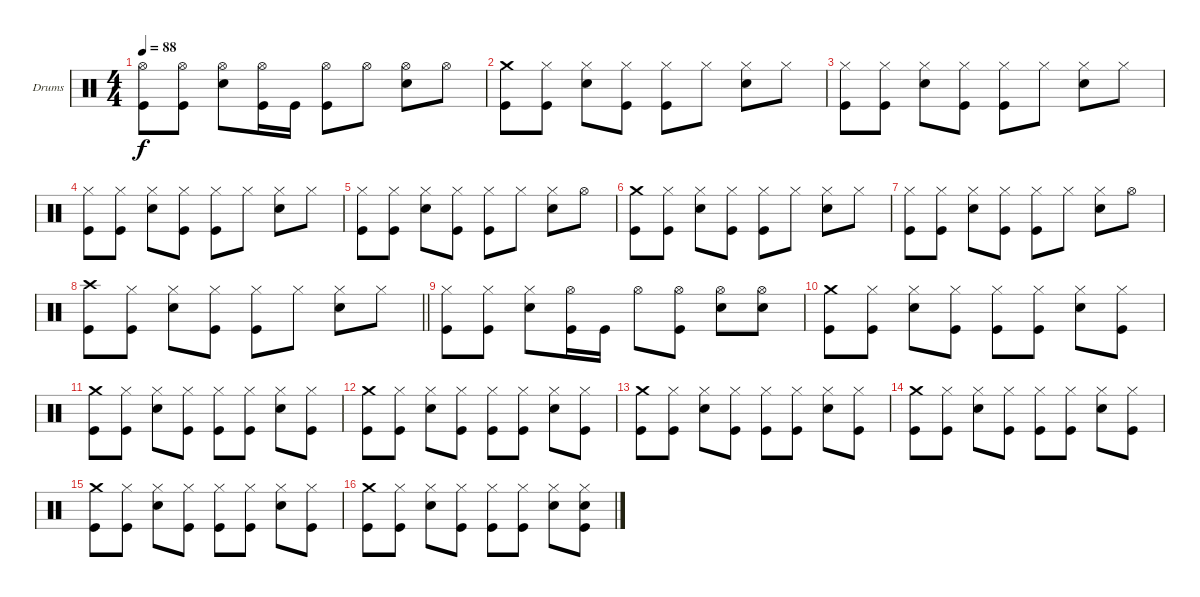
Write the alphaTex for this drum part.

\bracketExtendMode groupsimilarinstruments
\firstSystemTrackNameOrientation horizontal
\otherSystemsTrackNameOrientation horizontal
\track ("Drumkit" "Drums") {instrument percussion}
\staff {score}
\articulation defaults
\ts (4 4)
\tempo 88
\clef neutral
\ks c
("Kick (hit)" "Hi-Hat (open)").8{dy f} ("Kick (hit)" "Hi-Hat (open)").8 ("Snare (hit) 2" "Hi-Hat (open)").8 ("Kick (hit)" "Hi-Hat (open)").16 "Kick (hit)".16 ("Kick (hit)" "Hi-Hat (open)").8 "Hi-Hat (open)".8 ("Snare (hit) 2" "Hi-Hat (open)").8 "Hi-Hat (open)".8 |
("Kick (hit)" "Crash medium (hit)").8 ("Kick (hit)" "Hi-Hat (closed)").8 ("Snare (hit) 2" "Hi-Hat (closed)").8 ("Kick (hit)" "Hi-Hat (closed)").8 ("Kick (hit)" "Hi-Hat (closed)").8 "Hi-Hat (closed)".8 ("Snare (hit) 2" "Hi-Hat (closed)").8 "Hi-Hat (closed)".8 |
("Kick (hit)" "Hi-Hat (closed)").8 ("Kick (hit)" "Hi-Hat (closed)").8 ("Snare (hit) 2" "Hi-Hat (closed)").8 ("Kick (hit)" "Hi-Hat (closed)").8 ("Kick (hit)" "Hi-Hat (closed)").8 "Hi-Hat (closed)".8 ("Snare (hit) 2" "Hi-Hat (closed)").8 "Hi-Hat (closed)".8 |
("Kick (hit)" "Hi-Hat (closed)").8 ("Kick (hit)" "Hi-Hat (closed)").8 ("Snare (hit) 2" "Hi-Hat (closed)").8 ("Kick (hit)" "Hi-Hat (closed)").8 ("Kick (hit)" "Hi-Hat (closed)").8 "Hi-Hat (closed)".8 ("Snare (hit) 2" "Hi-Hat (closed)").8 "Hi-Hat (closed)".8 |
("Kick (hit)" "Hi-Hat (closed)").8 ("Kick (hit)" "Hi-Hat (closed)").8 ("Snare (hit) 2" "Hi-Hat (closed)").8 ("Kick (hit)" "Hi-Hat (closed)").8 ("Kick (hit)" "Hi-Hat (closed)").8 "Hi-Hat (closed)".8 ("Snare (hit) 2" "Hi-Hat (closed)").8 "Hi-Hat (open)".8 |
("Kick (hit)" "Crash medium (hit)").8 ("Kick (hit)" "Hi-Hat (closed)").8 ("Snare (hit) 2" "Hi-Hat (closed)").8 ("Kick (hit)" "Hi-Hat (closed)").8 ("Kick (hit)" "Hi-Hat (closed)").8 "Hi-Hat (closed)".8 ("Snare (hit) 2" "Hi-Hat (closed)").8 "Hi-Hat (closed)".8 |
("Kick (hit)" "Hi-Hat (closed)").8 ("Kick (hit)" "Hi-Hat (closed)").8 ("Snare (hit) 2" "Hi-Hat (closed)").8 ("Kick (hit)" "Hi-Hat (closed)").8 ("Kick (hit)" "Hi-Hat (closed)").8 "Hi-Hat (closed)".8 ("Snare (hit) 2" "Hi-Hat (closed)").8 "Hi-Hat (open)".8 |
\barLineRight lightlight
("Kick (hit)" "Crash high (hit)").8 ("Kick (hit)" "Hi-Hat (closed)").8 ("Snare (hit) 2" "Hi-Hat (closed)").8 ("Kick (hit)" "Hi-Hat (closed)").8 ("Kick (hit)" "Hi-Hat (closed)").8 "Hi-Hat (closed)".8 ("Snare (hit) 2" "Hi-Hat (closed)").8 "Hi-Hat (closed)".8 |
("Kick (hit)" "Hi-Hat (closed)").8 ("Kick (hit)" "Hi-Hat (closed)").8 ("Snare (hit) 2" "Hi-Hat (closed)").8 ("Kick (hit)" "Hi-Hat (open)").16 "Kick (hit)".16 "Hi-Hat (open)".8 ("Kick (hit)" "Hi-Hat (open)").8 ("Snare (hit) 2" "Hi-Hat (open)").8 ("Snare (hit) 2" "Hi-Hat (open)").8 |
("Kick (hit)" "Crash medium (hit)").8 ("Kick (hit)" "Hi-Hat (closed)").8 ("Snare (hit) 2" "Hi-Hat (closed)").8 ("Kick (hit)" "Hi-Hat (closed)").8 ("Kick (hit)" "Hi-Hat (closed)").8 ("Kick (hit)" "Hi-Hat (closed)").8 ("Snare (hit) 2" "Hi-Hat (closed)").8 ("Kick (hit)" "Hi-Hat (closed)").8 |
("Kick (hit)" "Crash medium (hit)").8 ("Kick (hit)" "Hi-Hat (closed)").8 ("Snare (hit) 2" "Hi-Hat (closed)").8 ("Kick (hit)" "Hi-Hat (closed)").8 ("Kick (hit)" "Hi-Hat (closed)").8 ("Kick (hit)" "Hi-Hat (closed)").8 ("Snare (hit) 2" "Hi-Hat (closed)").8 ("Kick (hit)" "Hi-Hat (closed)").8 |
("Kick (hit)" "Crash medium (hit)").8 ("Kick (hit)" "Hi-Hat (closed)").8 ("Snare (hit) 2" "Hi-Hat (closed)").8 ("Kick (hit)" "Hi-Hat (closed)").8 ("Kick (hit)" "Hi-Hat (closed)").8 ("Kick (hit)" "Hi-Hat (closed)").8 ("Snare (hit) 2" "Hi-Hat (closed)").8 ("Kick (hit)" "Hi-Hat (closed)").8 |
("Kick (hit)" "Crash medium (hit)").8 ("Kick (hit)" "Hi-Hat (closed)").8 ("Snare (hit) 2" "Hi-Hat (closed)").8 ("Kick (hit)" "Hi-Hat (closed)").8 ("Kick (hit)" "Hi-Hat (closed)").8 ("Kick (hit)" "Hi-Hat (closed)").8 ("Snare (hit) 2" "Hi-Hat (closed)").8 ("Kick (hit)" "Hi-Hat (closed)").8 |
("Kick (hit)" "Crash medium (hit)").8 ("Kick (hit)" "Hi-Hat (closed)").8 ("Snare (hit) 2" "Hi-Hat (closed)").8 ("Kick (hit)" "Hi-Hat (closed)").8 ("Kick (hit)" "Hi-Hat (closed)").8 ("Kick (hit)" "Hi-Hat (closed)").8 ("Snare (hit) 2" "Hi-Hat (closed)").8 ("Kick (hit)" "Hi-Hat (closed)").8 |
("Kick (hit)" "Crash medium (hit)").8 ("Kick (hit)" "Hi-Hat (closed)").8 ("Snare (hit) 2" "Hi-Hat (closed)").8 ("Kick (hit)" "Hi-Hat (closed)").8 ("Kick (hit)" "Hi-Hat (closed)").8 ("Kick (hit)" "Hi-Hat (closed)").8 ("Snare (hit) 2" "Hi-Hat (closed)").8 ("Kick (hit)" "Hi-Hat (closed)").8 |
("Kick (hit)" "Crash medium (hit)").8 ("Kick (hit)" "Hi-Hat (closed)").8 ("Snare (hit) 2" "Hi-Hat (closed)").8 ("Kick (hit)" "Hi-Hat (closed)").8 ("Kick (hit)" "Hi-Hat (closed)").8 ("Kick (hit)" "Hi-Hat (closed)").8 ("Snare (hit) 2" "Hi-Hat (closed)").8 ("Snare (hit) 2" "Kick (hit)" "Hi-Hat (closed)").8
